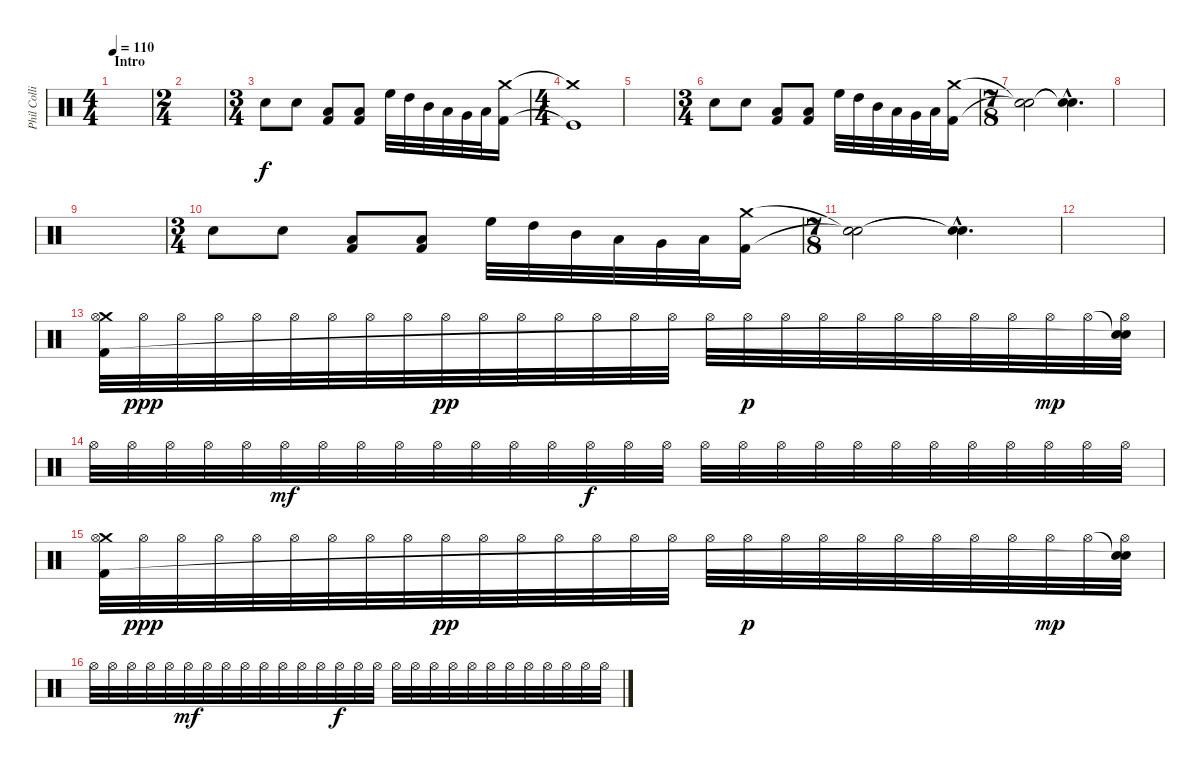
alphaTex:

\track ("Phil Collins (drums)" "Phil Colli") {instrument percussion}
\staff {score}
\articulation defaults
\ts (4 4)
\section ("" "Intro")
\tempo 110
\clef neutral
\ks c
|
\ts (2 4)
|
\ts (3 4)
"Electric Snare (hit)".8 "Electric Snare (hit)".8 ("Low Tom (hit)" "Kick (hit) 2").8 ("Low Tom (hit)" "Kick (hit) 2").8 "High Floor Tom (hit)".32 "High Tom (hit)".32 "Mid Tom (hit)".32 "Low Tom (hit)".32 "Very Low Tom (hit)".32 "Low Floor Tom (hit)".32 ("Crash medium (hit)" "Kick (hit) 2").16 |
\ts (4 4)
("Crash medium (hit)"{t} "Kick (hit)"{t}).1 |
|
\ts (3 4)
"Electric Snare (hit)".8 "Electric Snare (hit)".8 ("Low Tom (hit)" "Kick (hit) 2").8 ("Low Tom (hit)" "Kick (hit) 2").8 "High Floor Tom (hit)".32 "High Tom (hit)".32 "Mid Tom (hit)".32 "Low Tom (hit)".32 "Very Low Tom (hit)".32 "Low Floor Tom (hit)".32 ("Crash medium (hit)" "Kick (hit) 2").16 |
\ts (7 8)
("Snare (hit)"{t} "Snare (hit)"{t}).2 ("Snare (hit)"{hac t} "Snare (hit)"{hac t}).4{d} |
|
|
\ts (3 4)
"Electric Snare (hit)".8 "Electric Snare (hit)".8 ("Low Tom (hit)" "Kick (hit) 2").8 ("Low Tom (hit)" "Kick (hit) 2").8 "High Floor Tom (hit)".32 "High Tom (hit)".32 "Mid Tom (hit)".32 "Low Tom (hit)".32 "Very Low Tom (hit)".32 "Low Floor Tom (hit)".32 ("Crash medium (hit)" "Kick (hit) 2").16 |
\ts (7 8)
("Snare (hit)"{t} "Snare (hit)"{t}).2 ("Snare (hit)"{hac t} "Snare (hit)"{hac t}).4{d} |
|
("Crash medium (hit)" "Hi-Hat (open)" "Kick (hit) 2").32 "Hi-Hat (open)".32{dy ppp} "Hi-Hat (open)".32 "Hi-Hat (open)".32 "Hi-Hat (open)".32 "Hi-Hat (open)".32 "Hi-Hat (open)".32 "Hi-Hat (open)".32 "Hi-Hat (open)".32 "Hi-Hat (open)".32{dy pp} "Hi-Hat (open)".32 "Hi-Hat (open)".32 "Hi-Hat (open)".32 "Hi-Hat (open)".32 "Hi-Hat (open)".32 "Hi-Hat (open)".32 "Hi-Hat (open)".32 "Hi-Hat (open)".32{dy p} "Hi-Hat (open)".32 "Hi-Hat (open)".32 "Hi-Hat (open)".32 "Hi-Hat (open)".32 "Hi-Hat (open)".32 "Hi-Hat (open)".32 "Hi-Hat (open)".32 "Hi-Hat (open)".32{dy mp} "Hi-Hat (open)".32 ("Snare (hit)"{t} "Hi-Hat (open)" "Snare (hit)"{t}).32 |
"Hi-Hat (open)".32 "Hi-Hat (open)".32 "Hi-Hat (open)".32 "Hi-Hat (open)".32 "Hi-Hat (open)".32 "Hi-Hat (open)".32{dy mf} "Hi-Hat (open)".32 "Hi-Hat (open)".32 "Hi-Hat (open)".32 "Hi-Hat (open)".32 "Hi-Hat (open)".32 "Hi-Hat (open)".32 "Hi-Hat (open)".32 "Hi-Hat (open)".32{dy f} "Hi-Hat (open)".32 "Hi-Hat (open)".32 "Hi-Hat (open)".32 "Hi-Hat (open)".32 "Hi-Hat (open)".32 "Hi-Hat (open)".32 "Hi-Hat (open)".32 "Hi-Hat (open)".32 "Hi-Hat (open)".32 "Hi-Hat (open)".32 "Hi-Hat (open)".32 "Hi-Hat (open)".32 "Hi-Hat (open)".32 "Hi-Hat (open)".32 |
("Crash medium (hit)" "Hi-Hat (open)" "Kick (hit) 2").32 "Hi-Hat (open)".32{dy ppp} "Hi-Hat (open)".32 "Hi-Hat (open)".32 "Hi-Hat (open)".32 "Hi-Hat (open)".32 "Hi-Hat (open)".32 "Hi-Hat (open)".32 "Hi-Hat (open)".32 "Hi-Hat (open)".32{dy pp} "Hi-Hat (open)".32 "Hi-Hat (open)".32 "Hi-Hat (open)".32 "Hi-Hat (open)".32 "Hi-Hat (open)".32 "Hi-Hat (open)".32 "Hi-Hat (open)".32 "Hi-Hat (open)".32{dy p} "Hi-Hat (open)".32 "Hi-Hat (open)".32 "Hi-Hat (open)".32 "Hi-Hat (open)".32 "Hi-Hat (open)".32 "Hi-Hat (open)".32 "Hi-Hat (open)".32 "Hi-Hat (open)".32{dy mp} "Hi-Hat (open)".32 ("Snare (hit)"{t} "Hi-Hat (open)" "Snare (hit)"{t}).32 |
"Hi-Hat (open)".32 "Hi-Hat (open)".32 "Hi-Hat (open)".32 "Hi-Hat (open)".32 "Hi-Hat (open)".32 "Hi-Hat (open)".32{dy mf} "Hi-Hat (open)".32 "Hi-Hat (open)".32 "Hi-Hat (open)".32 "Hi-Hat (open)".32 "Hi-Hat (open)".32 "Hi-Hat (open)".32 "Hi-Hat (open)".32 "Hi-Hat (open)".32{dy f} "Hi-Hat (open)".32 "Hi-Hat (open)".32 "Hi-Hat (open)".32 "Hi-Hat (open)".32 "Hi-Hat (open)".32 "Hi-Hat (open)".32 "Hi-Hat (open)".32 "Hi-Hat (open)".32 "Hi-Hat (open)".32 "Hi-Hat (open)".32 "Hi-Hat (open)".32 "Hi-Hat (open)".32 "Hi-Hat (open)".32 "Hi-Hat (open)".32
